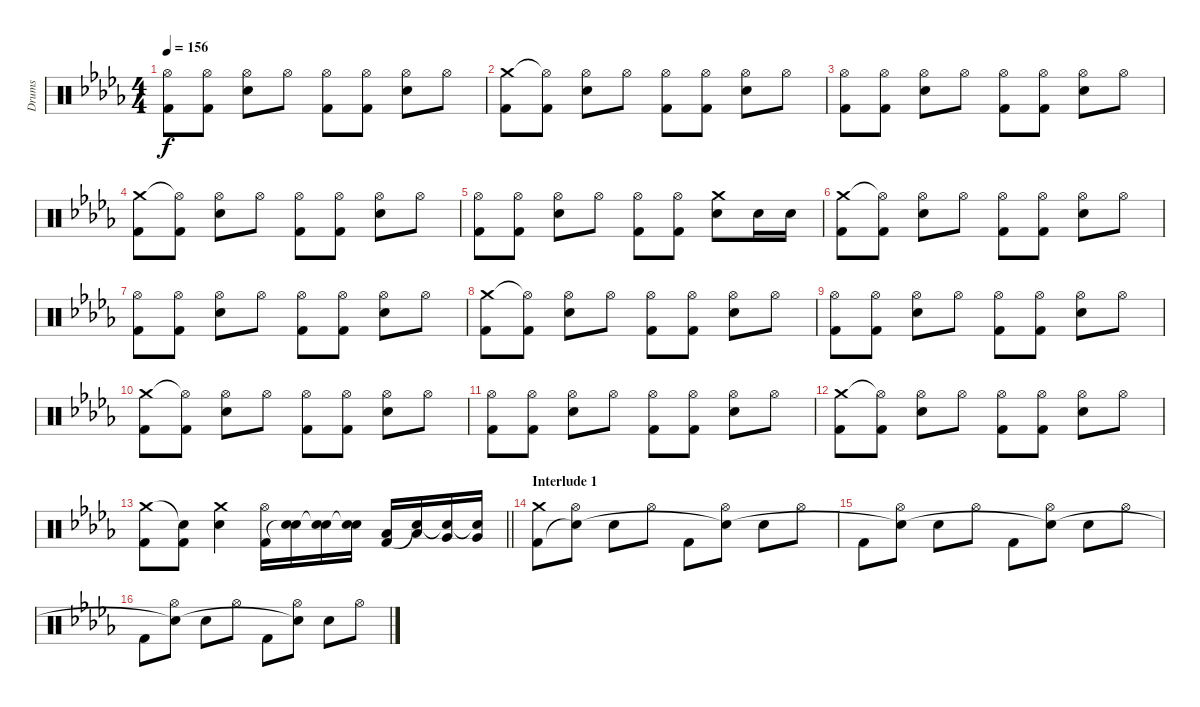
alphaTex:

\track ("Drums" "Drums") {instrument percussion}
\staff {score}
\articulation defaults
\ts (4 4)
\tempo 156
\clef neutral
\ks db
("Hi-Hat (open)" "Kick (hit) 2").8{dy f} ("Hi-Hat (open)" "Kick (hit) 2").8 ("Hi-Hat (open)" "Electric Snare (hit)").8 "Hi-Hat (open)".8 ("Hi-Hat (open)" "Kick (hit) 2").8 ("Hi-Hat (open)" "Kick (hit) 2").8 ("Hi-Hat (open)" "Electric Snare (hit)").8 "Hi-Hat (open)".8 |
("Crash medium (hit)" "Kick (hit) 2").8 ("Hi-Hat (open)"{t} "Kick (hit) 2").8 ("Hi-Hat (open)" "Electric Snare (hit)").8 "Hi-Hat (open)".8 ("Hi-Hat (open)" "Kick (hit) 2").8 ("Hi-Hat (open)" "Kick (hit) 2").8 ("Hi-Hat (open)" "Electric Snare (hit)").8 "Hi-Hat (open)".8 |
("Hi-Hat (open)" "Kick (hit) 2").8 ("Hi-Hat (open)" "Kick (hit) 2").8 ("Hi-Hat (open)" "Electric Snare (hit)").8 "Hi-Hat (open)".8 ("Hi-Hat (open)" "Kick (hit) 2").8 ("Hi-Hat (open)" "Kick (hit) 2").8 ("Hi-Hat (open)" "Electric Snare (hit)").8 "Hi-Hat (open)".8 |
("Crash medium (hit)" "Kick (hit) 2").8 ("Hi-Hat (open)"{t} "Kick (hit) 2").8 ("Hi-Hat (open)" "Electric Snare (hit)").8 "Hi-Hat (open)".8 ("Hi-Hat (open)" "Kick (hit) 2").8 ("Hi-Hat (open)" "Kick (hit) 2").8 ("Hi-Hat (open)" "Electric Snare (hit)").8 "Hi-Hat (open)".8 |
("Hi-Hat (open)" "Kick (hit) 2").8 ("Hi-Hat (open)" "Kick (hit) 2").8 ("Hi-Hat (open)" "Electric Snare (hit)").8 "Hi-Hat (open)".8 ("Hi-Hat (open)" "Kick (hit) 2").8 ("Hi-Hat (open)" "Kick (hit) 2").8 ("Crash medium (hit)" "Electric Snare (hit)").8 "Electric Snare (hit)".16 "Electric Snare (hit)".16 |
("Crash medium (hit)" "Kick (hit) 2").8 ("Hi-Hat (open)"{t} "Kick (hit) 2").8 ("Hi-Hat (open)" "Electric Snare (hit)").8 "Hi-Hat (open)".8 ("Hi-Hat (open)" "Kick (hit) 2").8 ("Hi-Hat (open)" "Kick (hit) 2").8 ("Hi-Hat (open)" "Electric Snare (hit)").8 "Hi-Hat (open)".8 |
("Hi-Hat (open)" "Kick (hit) 2").8 ("Hi-Hat (open)" "Kick (hit) 2").8 ("Hi-Hat (open)" "Electric Snare (hit)").8 "Hi-Hat (open)".8 ("Hi-Hat (open)" "Kick (hit) 2").8 ("Hi-Hat (open)" "Kick (hit) 2").8 ("Hi-Hat (open)" "Electric Snare (hit)").8 "Hi-Hat (open)".8 |
("Crash medium (hit)" "Kick (hit) 2").8 ("Hi-Hat (open)"{t} "Kick (hit) 2").8 ("Hi-Hat (open)" "Electric Snare (hit)").8 "Hi-Hat (open)".8 ("Hi-Hat (open)" "Kick (hit) 2").8 ("Hi-Hat (open)" "Kick (hit) 2").8 ("Hi-Hat (open)" "Electric Snare (hit)").8 "Hi-Hat (open)".8 |
("Hi-Hat (open)" "Kick (hit) 2").8 ("Hi-Hat (open)" "Kick (hit) 2").8 ("Hi-Hat (open)" "Electric Snare (hit)").8 "Hi-Hat (open)".8 ("Hi-Hat (open)" "Kick (hit) 2").8 ("Hi-Hat (open)" "Kick (hit) 2").8 ("Hi-Hat (open)" "Electric Snare (hit)").8 "Hi-Hat (open)".8 |
("Crash medium (hit)" "Kick (hit) 2").8 ("Hi-Hat (open)"{t} "Kick (hit) 2").8 ("Hi-Hat (open)" "Electric Snare (hit)").8 "Hi-Hat (open)".8 ("Hi-Hat (open)" "Kick (hit) 2").8 ("Hi-Hat (open)" "Kick (hit) 2").8 ("Hi-Hat (open)" "Electric Snare (hit)").8 "Hi-Hat (open)".8 |
("Hi-Hat (open)" "Kick (hit) 2").8 ("Hi-Hat (open)" "Kick (hit) 2").8 ("Hi-Hat (open)" "Electric Snare (hit)").8 "Hi-Hat (open)".8 ("Hi-Hat (open)" "Kick (hit) 2").8 ("Hi-Hat (open)" "Kick (hit) 2").8 ("Hi-Hat (open)" "Electric Snare (hit)").8 "Hi-Hat (open)".8 |
("Crash medium (hit)" "Kick (hit) 2").8 ("Hi-Hat (open)"{t} "Kick (hit) 2").8 ("Hi-Hat (open)" "Electric Snare (hit)").8 "Hi-Hat (open)".8 ("Hi-Hat (open)" "Kick (hit) 2").8 ("Hi-Hat (open)" "Kick (hit) 2").8 ("Hi-Hat (open)" "Electric Snare (hit)").8 "Hi-Hat (open)".8 |
\barLineRight lightlight
("Crash medium (hit)" "Kick (hit) 2").8 ("Snare (hit)"{t} "Kick (hit) 2").8 ("Crash medium (hit)" "Electric Snare (hit)").4 ("Hi-Hat (open)" "Kick (hit) 2").16 ("Electric Snare (hit)" "Snare (hit)"{t}).16 ("Electric Snare (hit)" "Snare (hit)"{t}).16 ("Electric Snare (hit)" "Snare (hit)"{t}).16 ("Low Tom (hit)" "Kick (hit) 2").16 ("Low Tom (hit)" "Snare (hit)"{t}).16 ("Very Low Tom (hit)" "Snare (hit)"{t}).16 ("Very Low Tom (hit)" "Snare (hit)"{t}).16 |
\section ("" "Interlude 1")
("Crash medium (hit)" "Kick (hit) 2").8 ("Hi-Hat (open)" "Snare (hit)"{t}).8 "Electric Snare (hit)".8 "Hi-Hat (open)".8 "Kick (hit) 2".8 ("Hi-Hat (open)" "Snare (hit)"{t}).8 "Electric Snare (hit)".8 "Hi-Hat (open)".8 |
"Kick (hit) 2".8 ("Hi-Hat (open)" "Snare (hit)"{t}).8 "Electric Snare (hit)".8 "Hi-Hat (open)".8 "Kick (hit) 2".8 ("Hi-Hat (open)" "Snare (hit)"{t}).8 "Electric Snare (hit)".8 "Hi-Hat (open)".8 |
"Kick (hit) 2".8 ("Hi-Hat (open)" "Snare (hit)"{t}).8 "Electric Snare (hit)".8 "Hi-Hat (open)".8 "Kick (hit) 2".8 ("Hi-Hat (open)" "Snare (hit)"{t}).8 "Electric Snare (hit)".8 "Hi-Hat (open)".8
